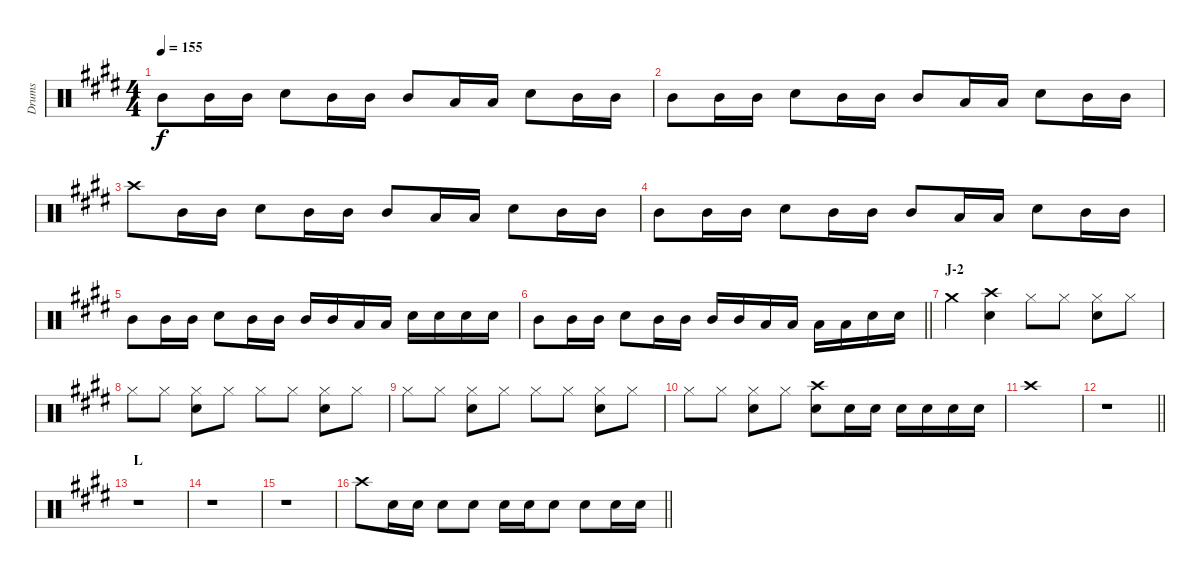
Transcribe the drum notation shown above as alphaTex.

\track ("Drums" "Drums") {instrument percussion}
\staff {score}
\articulation defaults
\ts (4 4)
\tempo 155
\clef neutral
\ks e "Mid Tom (hit)".8{dy f} "Mid Tom (hit)".16 "Mid Tom (hit)".16 "Snare (hit) 2".8 "Mid Tom (hit)".16 "Mid Tom (hit)".16 "Mid Tom (hit)".8 "Low Tom (hit)".16 "Low Tom (hit)".16 "Snare (hit) 2".8 "Mid Tom (hit)".16 "Mid Tom (hit)".16
|
"Mid Tom (hit)".8 "Mid Tom (hit)".16 "Mid Tom (hit)".16 "Snare (hit) 2".8 "Mid Tom (hit)".16 "Mid Tom (hit)".16 "Mid Tom (hit)".8 "Low Tom (hit)".16 "Low Tom (hit)".16 "Snare (hit) 2".8 "Mid Tom (hit)".16 "Mid Tom (hit)".16 |
"Crash high (hit)".8 "Mid Tom (hit)".16 "Mid Tom (hit)".16 "Snare (hit) 2".8 "Mid Tom (hit)".16 "Mid Tom (hit)".16 "Mid Tom (hit)".8 "Low Tom (hit)".16 "Low Tom (hit)".16 "Snare (hit) 2".8 "Mid Tom (hit)".16 "Mid Tom (hit)".16 |
"Mid Tom (hit)".8 "Mid Tom (hit)".16 "Mid Tom (hit)".16 "Snare (hit) 2".8 "Mid Tom (hit)".16 "Mid Tom (hit)".16 "Mid Tom (hit)".8 "Low Tom (hit)".16 "Low Tom (hit)".16 "Snare (hit) 2".8 "Mid Tom (hit)".16 "Mid Tom (hit)".16 |
"Mid Tom (hit)".8 "Mid Tom (hit)".16 "Mid Tom (hit)".16 "Snare (hit) 2".8 "Mid Tom (hit)".16 "Mid Tom (hit)".16 "Mid Tom (hit)".16 "Mid Tom (hit)".16 "Low Tom (hit)".16 "Low Tom (hit)".16 "Snare (hit) 2".16 "Snare (hit) 2".16 "Snare (hit) 2".16 "Snare (hit) 2".16 |
\barLineRight lightlight "Mid Tom (hit)".8 "Mid Tom (hit)".16 "Mid Tom (hit)".16 "Snare (hit) 2".8 "Mid Tom (hit)".16 "Mid Tom (hit)".16 "Mid Tom (hit)".16 "Mid Tom (hit)".16 "Low Tom (hit)".16 "Low Tom (hit)".16 "Low Tom (hit)".16 "Low Tom (hit)".16 "Snare (hit) 2".16 "Snare (hit) 2".16
|
\section ("" "J-2")
"Crash medium (hit)".4 ("Crash high (hit)" "Snare (hit) 2").4 "Hi-Hat (closed)".8 "Hi-Hat (closed)".8 ("Hi-Hat (closed)" "Snare (hit) 2").8 "Hi-Hat (closed)".8 |
"Hi-Hat (closed)".8 "Hi-Hat (closed)".8 ("Hi-Hat (closed)" "Snare (hit) 2").8 "Hi-Hat (closed)".8 "Hi-Hat (closed)".8 "Hi-Hat (closed)".8 ("Hi-Hat (closed)" "Snare (hit) 2").8 "Hi-Hat (closed)".8 |
"Hi-Hat (closed)".8 "Hi-Hat (closed)".8 ("Hi-Hat (closed)" "Snare (hit) 2").8 "Hi-Hat (closed)".8 "Hi-Hat (closed)".8 "Hi-Hat (closed)".8 ("Hi-Hat (closed)" "Snare (hit) 2").8 "Hi-Hat (closed)".8 |
"Hi-Hat (closed)".8 "Hi-Hat (closed)".8 ("Hi-Hat (closed)" "Snare (hit) 2").8 "Hi-Hat (closed)".8 ("Crash high (hit)" "Snare (hit) 2").8 "Snare (hit) 2".16 "Snare (hit) 2".16 "Snare (hit) 2".16 "Snare (hit) 2".16 "Snare (hit) 2".16 "Snare (hit) 2".16 |
"Crash high (hit)".1 |
\barLineRight lightlight
r.1 |
\section ("" "L")
r.1 |
r.1 |
r.1 |
\barLineRight lightlight "Crash high (hit)".8 "Snare (hit) 2".16 "Snare (hit) 2".16 "Snare (hit) 2".8 "Snare (hit) 2".8 "Snare (hit) 2".16 "Snare (hit) 2".16 "Snare (hit) 2".8 "Snare (hit) 2".8 "Snare (hit) 2".16 "Snare (hit) 2".16
